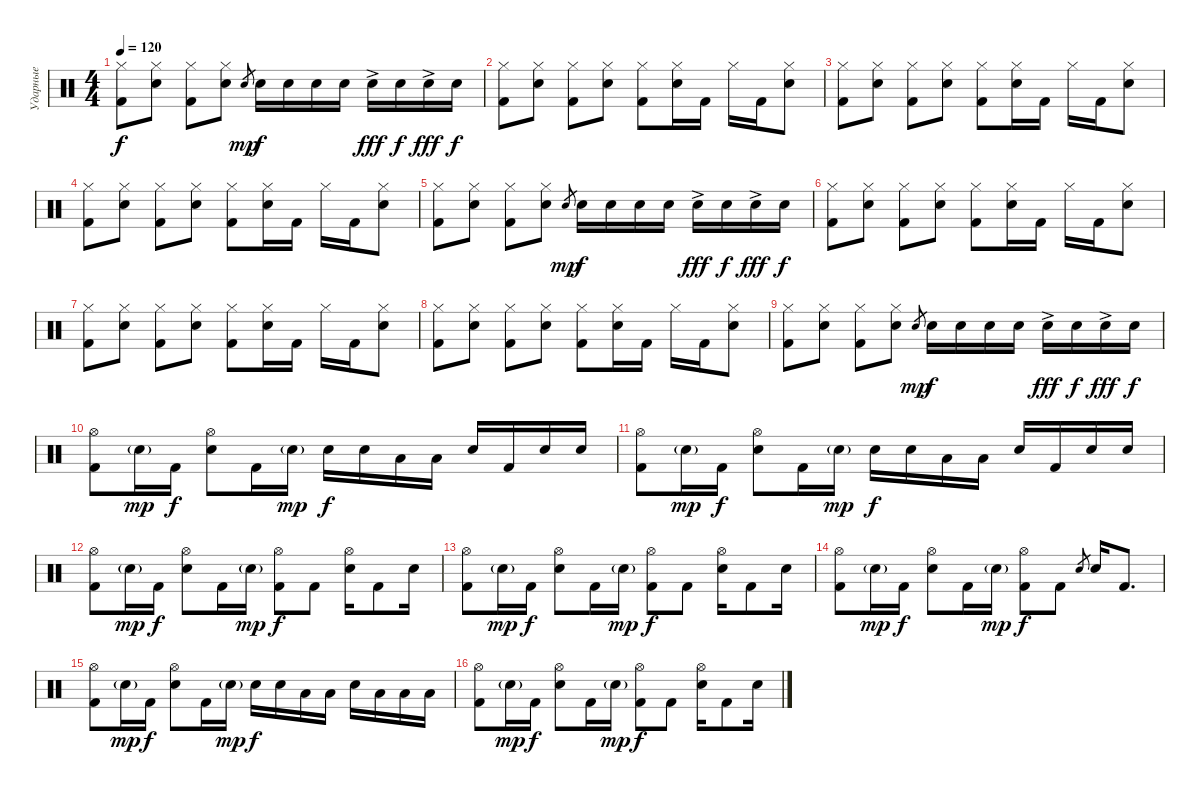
\track ("Ударные" "Ударные") {instrument percussion}
\staff {score}
\articulation defaults
\ts (4 4)
\tempo 120
\clef neutral
\ks c
("Hi-Hat (closed)" "Kick (hit) 2").8{dy f} ("Hi-Hat (closed)" "Snare (hit) 2").8 ("Hi-Hat (closed)" "Kick (hit) 2").8 ("Hi-Hat (closed)" "Snare (hit) 2").8 "Snare (hit) 2".8{gr dy mp} "Snare (hit) 2".16{dy f} "Snare (hit) 2".16 "Snare (hit) 2".16 "Snare (hit) 2".16 "Snare (hit) 2"{ac}.16{dy fff} "Snare (hit) 2".16{dy f} "Snare (hit) 2"{ac}.16{dy fff} "Snare (hit) 2".16{dy f} |
("Hi-Hat (closed)" "Kick (hit) 2").8 ("Hi-Hat (closed)" "Snare (hit) 2").8 ("Hi-Hat (closed)" "Kick (hit) 2").8 ("Hi-Hat (closed)" "Snare (hit) 2").8 ("Hi-Hat (closed)" "Kick (hit) 2").8 ("Hi-Hat (closed)" "Snare (hit) 2").16 "Kick (hit) 2".16 "Hi-Hat (closed)".16 "Kick (hit) 2".16 ("Hi-Hat (closed)" "Snare (hit) 2").8 |
("Hi-Hat (closed)" "Kick (hit) 2").8 ("Hi-Hat (closed)" "Snare (hit) 2").8 ("Hi-Hat (closed)" "Kick (hit) 2").8 ("Hi-Hat (closed)" "Snare (hit) 2").8 ("Hi-Hat (closed)" "Kick (hit) 2").8 ("Hi-Hat (closed)" "Snare (hit) 2").16 "Kick (hit) 2".16 "Hi-Hat (closed)".16 "Kick (hit) 2".16 ("Hi-Hat (closed)" "Snare (hit) 2").8 |
("Hi-Hat (closed)" "Kick (hit) 2").8 ("Hi-Hat (closed)" "Snare (hit) 2").8 ("Hi-Hat (closed)" "Kick (hit) 2").8 ("Hi-Hat (closed)" "Snare (hit) 2").8 ("Hi-Hat (closed)" "Kick (hit) 2").8 ("Hi-Hat (closed)" "Snare (hit) 2").16 "Kick (hit) 2".16 "Hi-Hat (closed)".16 "Kick (hit) 2".16 ("Hi-Hat (closed)" "Snare (hit) 2").8 |
("Hi-Hat (closed)" "Kick (hit) 2").8 ("Hi-Hat (closed)" "Snare (hit) 2").8 ("Hi-Hat (closed)" "Kick (hit) 2").8 ("Hi-Hat (closed)" "Snare (hit) 2").8 "Snare (hit) 2".8{gr dy mp} "Snare (hit) 2".16{dy f} "Snare (hit) 2".16 "Snare (hit) 2".16 "Snare (hit) 2".16 "Snare (hit) 2"{ac}.16{dy fff} "Snare (hit) 2".16{dy f} "Snare (hit) 2"{ac}.16{dy fff} "Snare (hit) 2".16{dy f} |
("Hi-Hat (closed)" "Kick (hit) 2").8 ("Hi-Hat (closed)" "Snare (hit) 2").8 ("Hi-Hat (closed)" "Kick (hit) 2").8 ("Hi-Hat (closed)" "Snare (hit) 2").8 ("Hi-Hat (closed)" "Kick (hit) 2").8 ("Hi-Hat (closed)" "Snare (hit) 2").16 "Kick (hit) 2".16 "Hi-Hat (closed)".16 "Kick (hit) 2".16 ("Hi-Hat (closed)" "Snare (hit) 2").8 |
("Hi-Hat (closed)" "Kick (hit) 2").8 ("Hi-Hat (closed)" "Snare (hit) 2").8 ("Hi-Hat (closed)" "Kick (hit) 2").8 ("Hi-Hat (closed)" "Snare (hit) 2").8 ("Hi-Hat (closed)" "Kick (hit) 2").8 ("Hi-Hat (closed)" "Snare (hit) 2").16 "Kick (hit) 2".16 "Hi-Hat (closed)".16 "Kick (hit) 2".16 ("Hi-Hat (closed)" "Snare (hit) 2").8 |
("Hi-Hat (closed)" "Kick (hit) 2").8 ("Hi-Hat (closed)" "Snare (hit) 2").8 ("Hi-Hat (closed)" "Kick (hit) 2").8 ("Hi-Hat (closed)" "Snare (hit) 2").8 ("Hi-Hat (closed)" "Kick (hit) 2").8 ("Hi-Hat (closed)" "Snare (hit) 2").16 "Kick (hit) 2".16 "Hi-Hat (closed)".16 "Kick (hit) 2".16 ("Hi-Hat (closed)" "Snare (hit) 2").8 |
("Hi-Hat (closed)" "Kick (hit) 2").8 ("Hi-Hat (closed)" "Snare (hit) 2").8 ("Hi-Hat (closed)" "Kick (hit) 2").8 ("Hi-Hat (closed)" "Snare (hit) 2").8 "Snare (hit) 2".8{gr dy mp} "Snare (hit) 2".16{dy f} "Snare (hit) 2".16 "Snare (hit) 2".16 "Snare (hit) 2".16 "Snare (hit) 2"{ac}.16{dy fff} "Snare (hit) 2".16{dy f} "Snare (hit) 2"{ac}.16{dy fff} "Snare (hit) 2".16{dy f} |
("Hi-Hat (open)" "Kick (hit) 2").8 "Snare (hit) 2"{g}.16{dy mp} "Kick (hit) 2".16{dy f} ("Hi-Hat (open)" "Snare (hit) 2").8 "Kick (hit) 2".16 "Snare (hit) 2"{g}.16{dy mp} "Snare (hit) 2".16{dy f} "Snare (hit) 2".16 "Low Tom (hit)".16 "Low Floor Tom (hit)".16 "Snare (hit) 2".16 "Kick (hit) 2".16 "Snare (hit) 2".16 "Snare (hit) 2".16 |
("Hi-Hat (open)" "Kick (hit) 2").8 "Snare (hit) 2"{g}.16{dy mp} "Kick (hit) 2".16{dy f} ("Hi-Hat (open)" "Snare (hit) 2").8 "Kick (hit) 2".16 "Snare (hit) 2"{g}.16{dy mp} "Snare (hit) 2".16{dy f} "Snare (hit) 2".16 "Low Tom (hit)".16 "Low Floor Tom (hit)".16 "Snare (hit) 2".16 "Kick (hit) 2".16 "Snare (hit) 2".16 "Snare (hit) 2".16 |
("Hi-Hat (open)" "Kick (hit) 2").8 "Snare (hit) 2"{g}.16{dy mp} "Kick (hit) 2".16{dy f} ("Hi-Hat (open)" "Snare (hit) 2").8 "Kick (hit) 2".16 "Snare (hit) 2"{g}.16{dy mp} ("Hi-Hat (open)" "Kick (hit) 2").8{dy f} "Kick (hit) 2".8 ("Hi-Hat (open)" "Snare (hit) 2").16 "Kick (hit) 2".8 "Snare (hit) 2".16 |
("Hi-Hat (open)" "Kick (hit) 2").8 "Snare (hit) 2"{g}.16{dy mp} "Kick (hit) 2".16{dy f} ("Hi-Hat (open)" "Snare (hit) 2").8 "Kick (hit) 2".16 "Snare (hit) 2"{g}.16{dy mp} ("Hi-Hat (open)" "Kick (hit) 2").8{dy f} "Kick (hit) 2".8 ("Hi-Hat (open)" "Snare (hit) 2").16 "Kick (hit) 2".8 "Snare (hit) 2".16 |
("Hi-Hat (open)" "Kick (hit) 2").8 "Snare (hit) 2"{g}.16{dy mp} "Kick (hit) 2".16{dy f} ("Hi-Hat (open)" "Snare (hit) 2").8 "Kick (hit) 2".16 "Snare (hit) 2"{g}.16{dy mp} ("Hi-Hat (open)" "Kick (hit) 2").8{dy f} "Kick (hit) 2".8 "Snare (hit) 2".8{gr} "Snare (hit) 2".16 "Kick (hit) 2".8{d} |
("Hi-Hat (open)" "Kick (hit) 2").8 "Snare (hit) 2"{g}.16{dy mp} "Kick (hit) 2".16{dy f} ("Hi-Hat (open)" "Snare (hit) 2").8 "Kick (hit) 2".16 "Snare (hit) 2"{g}.16{dy mp} "Snare (hit) 2".16{dy f} "Snare (hit) 2".16 "Low Tom (hit)".16 "Low Floor Tom (hit)".16 "Snare (hit) 2".16 "Low Tom (hit)".16 "Low Tom (hit)".16 "Low Floor Tom (hit)".16 |
("Hi-Hat (open)" "Kick (hit) 2").8 "Snare (hit) 2"{g}.16{dy mp} "Kick (hit) 2".16{dy f} ("Hi-Hat (open)" "Snare (hit) 2").8 "Kick (hit) 2".16 "Snare (hit) 2"{g}.16{dy mp} ("Hi-Hat (open)" "Kick (hit) 2").8{dy f} "Kick (hit) 2".8 ("Hi-Hat (open)" "Snare (hit) 2").16 "Kick (hit) 2".8 "Snare (hit) 2".16
